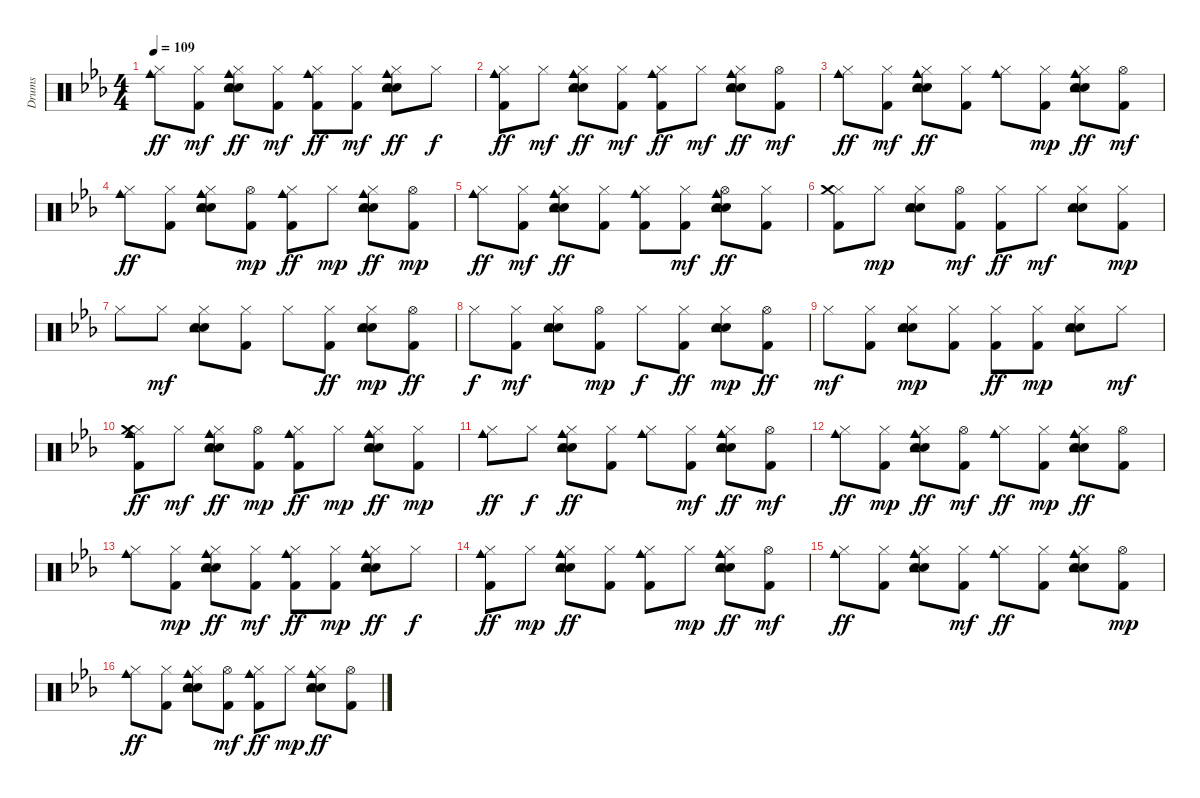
\track ("Drums" "Drums") {instrument percussion}
\staff {score}
\articulation defaults
\ts (4 4)
\tempo 109
\clef neutral
\ks eb
("Hi-Hat (closed)" "Cowbell medium (hit)").8{dy ff} ("Kick (hit) 2" "Hi-Hat (closed)").8{dy mf} ("Hand Clap (hit)" "Electric Snare (hit)" "Hi-Hat (closed)" "Tambourine (hit)" "Cowbell medium (hit)").8{dy ff} ("Kick (hit) 2" "Hi-Hat (closed)").8{dy mf} ("Kick (hit) 2" "Hi-Hat (closed)" "Cowbell medium (hit)").8{dy ff} ("Kick (hit) 2" "Hi-Hat (closed)").8{dy mf} ("Hand Clap (hit)" "Electric Snare (hit)" "Hi-Hat (closed)" "Tambourine (hit)" "Cowbell medium (hit)").8{dy ff} "Hi-Hat (closed)".8{dy f} |
("Kick (hit) 2" "Hi-Hat (closed)" "Cowbell medium (hit)").8{dy ff} "Hi-Hat (closed)".8{dy mf} ("Hand Clap (hit)" "Electric Snare (hit)" "Hi-Hat (closed)" "Tambourine (hit)" "Cowbell medium (hit)").8{dy ff} ("Kick (hit) 2" "Hi-Hat (closed)").8{dy mf} ("Kick (hit) 2" "Hi-Hat (closed)" "Cowbell medium (hit)").8{dy ff} "Hi-Hat (closed)".8{dy mf} ("Hand Clap (hit)" "Electric Snare (hit)" "Hi-Hat (closed)" "Tambourine (hit)" "Cowbell medium (hit)").8{dy ff} ("Kick (hit) 2" "Hi-Hat (open)").8{dy mf} |
("Hi-Hat (closed)" "Cowbell medium (hit)").8{dy ff} ("Kick (hit) 2" "Hi-Hat (closed)").8{dy mf} ("Hand Clap (hit)" "Electric Snare (hit)" "Hi-Hat (closed)" "Tambourine (hit)" "Cowbell medium (hit)").8{dy ff} ("Kick (hit) 2" "Hi-Hat (closed)").8 ("Hi-Hat (closed)" "Cowbell medium (hit)").8 ("Kick (hit) 2" "Hi-Hat (closed)").8{dy mp} ("Hand Clap (hit)" "Electric Snare (hit)" "Hi-Hat (closed)" "Tambourine (hit)" "Cowbell medium (hit)").8{dy ff} ("Kick (hit) 2" "Hi-Hat (open)").8{dy mf} |
("Hi-Hat (closed)" "Cowbell medium (hit)").8{dy ff} ("Kick (hit) 2" "Hi-Hat (closed)").8 ("Hand Clap (hit)" "Electric Snare (hit)" "Hi-Hat (closed)" "Tambourine (hit)" "Cowbell medium (hit)").8 ("Kick (hit) 2" "Hi-Hat (open)").8{dy mp} ("Kick (hit) 2" "Hi-Hat (closed)" "Cowbell medium (hit)").8{dy ff} "Hi-Hat (closed)".8{dy mp} ("Hand Clap (hit)" "Electric Snare (hit)" "Hi-Hat (closed)" "Tambourine (hit)" "Cowbell medium (hit)").8{dy ff} ("Kick (hit) 2" "Hi-Hat (open)").8{dy mp} |
("Hi-Hat (closed)" "Cowbell medium (hit)").8{dy ff} ("Kick (hit) 2" "Hi-Hat (closed)").8{dy mf} ("Hand Clap (hit)" "Electric Snare (hit)" "Hi-Hat (closed)" "Tambourine (hit)" "Cowbell medium (hit)").8{dy ff} ("Kick (hit) 2" "Hi-Hat (closed)").8 ("Kick (hit) 2" "Hi-Hat (closed)" "Cowbell medium (hit)").8 ("Kick (hit) 2" "Hi-Hat (closed)").8{dy mf} ("Hand Clap (hit)" "Electric Snare (hit)" "Hi-Hat (open)" "Tambourine (hit)" "Cowbell medium (hit)").8{dy ff} ("Kick (hit) 2" "Hi-Hat (closed)").8 |
("Kick (hit) 2" "Hi-Hat (closed)" "Crash medium (hit)").8 "Hi-Hat (closed)".8{dy mp} ("Hand Clap (hit)" "Electric Snare (hit)" "Hi-Hat (closed)" "Tambourine (hit)").8 ("Kick (hit) 2" "Hi-Hat (open)").8{dy mf} ("Kick (hit) 2" "Hi-Hat (closed)").8{dy ff} "Hi-Hat (closed)".8{dy mf} ("Hand Clap (hit)" "Electric Snare (hit)" "Hi-Hat (closed)" "Tambourine (hit)").8 ("Kick (hit) 2" "Hi-Hat (closed)").8{dy mp} |
"Hi-Hat (closed)".8 "Hi-Hat (closed)".8{dy mf} ("Hand Clap (hit)" "Electric Snare (hit)" "Hi-Hat (closed)" "Tambourine (hit)").8 ("Kick (hit) 2" "Hi-Hat (closed)").8 "Hi-Hat (closed)".8 ("Kick (hit) 2" "Hi-Hat (closed)").8{dy ff} ("Hand Clap (hit)" "Electric Snare (hit)" "Hi-Hat (closed)" "Tambourine (hit)").8{dy mp} ("Kick (hit) 2" "Hi-Hat (open)").8{dy ff} |
"Hi-Hat (closed)".8{dy f} ("Kick (hit) 2" "Hi-Hat (closed)").8{dy mf} ("Hand Clap (hit)" "Electric Snare (hit)" "Hi-Hat (closed)" "Tambourine (hit)").8 ("Kick (hit) 2" "Hi-Hat (open)").8{dy mp} "Hi-Hat (closed)".8{dy f} ("Kick (hit) 2" "Hi-Hat (closed)").8{dy ff} ("Hand Clap (hit)" "Electric Snare (hit)" "Hi-Hat (closed)" "Tambourine (hit)").8{dy mp} ("Kick (hit) 2" "Hi-Hat (open)").8{dy ff} |
"Hi-Hat (closed)".8{dy mf} ("Kick (hit) 2" "Hi-Hat (closed)").8 ("Hand Clap (hit)" "Electric Snare (hit)" "Hi-Hat (closed)" "Tambourine (hit)").8{dy mp} ("Kick (hit) 2" "Hi-Hat (closed)").8 ("Kick (hit) 2" "Hi-Hat (closed)").8{dy ff} ("Kick (hit) 2" "Hi-Hat (closed)").8{dy mp} ("Hand Clap (hit)" "Electric Snare (hit)" "Hi-Hat (closed)" "Tambourine (hit)").8 "Hi-Hat (closed)".8{dy mf} |
("Kick (hit) 2" "Hi-Hat (closed)" "Cowbell medium (hit)" "Crash medium (hit)").8{dy ff} "Hi-Hat (closed)".8{dy mf} ("Hand Clap (hit)" "Electric Snare (hit)" "Hi-Hat (closed)" "Tambourine (hit)" "Cowbell medium (hit)").8{dy ff} ("Kick (hit) 2" "Hi-Hat (open)").8{dy mp} ("Kick (hit) 2" "Hi-Hat (closed)" "Cowbell medium (hit)").8{dy ff} "Hi-Hat (closed)".8{dy mp} ("Hand Clap (hit)" "Electric Snare (hit)" "Hi-Hat (closed)" "Tambourine (hit)" "Cowbell medium (hit)").8{dy ff} ("Kick (hit) 2" "Hi-Hat (closed)").8{dy mp} |
("Hi-Hat (closed)" "Cowbell medium (hit)").8{dy ff} "Hi-Hat (closed)".8{dy f} ("Hand Clap (hit)" "Electric Snare (hit)" "Hi-Hat (closed)" "Tambourine (hit)" "Cowbell medium (hit)").8{dy ff} ("Kick (hit) 2" "Hi-Hat (closed)").8 ("Hi-Hat (closed)" "Cowbell medium (hit)").8 ("Kick (hit) 2" "Hi-Hat (closed)").8{dy mf} ("Hand Clap (hit)" "Electric Snare (hit)" "Hi-Hat (closed)" "Tambourine (hit)" "Cowbell medium (hit)").8{dy ff} ("Kick (hit) 2" "Hi-Hat (open)").8{dy mf} |
("Hi-Hat (closed)" "Cowbell medium (hit)").8{dy ff} ("Kick (hit) 2" "Hi-Hat (closed)").8{dy mp} ("Hand Clap (hit)" "Electric Snare (hit)" "Hi-Hat (closed)" "Tambourine (hit)" "Cowbell medium (hit)").8{dy ff} ("Kick (hit) 2" "Hi-Hat (open)").8{dy mf} ("Hi-Hat (closed)" "Cowbell medium (hit)").8{dy ff} ("Kick (hit) 2" "Hi-Hat (closed)").8{dy mp} ("Hand Clap (hit)" "Electric Snare (hit)" "Hi-Hat (closed)" "Tambourine (hit)" "Cowbell medium (hit)").8{dy ff} ("Kick (hit) 2" "Hi-Hat (open)").8 |
("Hi-Hat (closed)" "Cowbell medium (hit)").8 ("Kick (hit) 2" "Hi-Hat (closed)").8{dy mp} ("Hand Clap (hit)" "Electric Snare (hit)" "Hi-Hat (closed)" "Tambourine (hit)" "Cowbell medium (hit)").8{dy ff} ("Kick (hit) 2" "Hi-Hat (closed)").8{dy mf} ("Kick (hit) 2" "Hi-Hat (closed)" "Cowbell medium (hit)").8{dy ff} ("Kick (hit) 2" "Hi-Hat (closed)").8{dy mp} ("Hand Clap (hit)" "Electric Snare (hit)" "Hi-Hat (closed)" "Tambourine (hit)" "Cowbell medium (hit)").8{dy ff} "Hi-Hat (closed)".8{dy f} |
("Kick (hit) 2" "Hi-Hat (closed)" "Cowbell medium (hit)").8{dy ff} "Hi-Hat (closed)".8{dy mp} ("Hand Clap (hit)" "Electric Snare (hit)" "Hi-Hat (closed)" "Tambourine (hit)" "Cowbell medium (hit)").8{dy ff} ("Kick (hit) 2" "Hi-Hat (closed)").8 ("Kick (hit) 2" "Hi-Hat (closed)" "Cowbell medium (hit)").8 "Hi-Hat (closed)".8{dy mp} ("Hand Clap (hit)" "Electric Snare (hit)" "Hi-Hat (closed)" "Tambourine (hit)" "Cowbell medium (hit)").8{dy ff} ("Kick (hit) 2" "Hi-Hat (open)").8{dy mf} |
("Hi-Hat (closed)" "Cowbell medium (hit)").8{dy ff} ("Kick (hit) 2" "Hi-Hat (closed)").8 ("Hand Clap (hit)" "Electric Snare (hit)" "Hi-Hat (closed)" "Tambourine (hit)" "Cowbell medium (hit)").8 ("Kick (hit) 2" "Hi-Hat (closed)").8{dy mf} ("Hi-Hat (closed)" "Cowbell medium (hit)").8{dy ff} ("Kick (hit) 2" "Hi-Hat (closed)").8 ("Hand Clap (hit)" "Electric Snare (hit)" "Hi-Hat (closed)" "Tambourine (hit)" "Cowbell medium (hit)").8 ("Kick (hit) 2" "Hi-Hat (open)").8{dy mp} |
("Hi-Hat (closed)" "Cowbell medium (hit)").8{dy ff} ("Kick (hit) 2" "Hi-Hat (closed)").8 ("Hand Clap (hit)" "Electric Snare (hit)" "Hi-Hat (closed)" "Tambourine (hit)" "Cowbell medium (hit)").8 ("Kick (hit) 2" "Hi-Hat (open)").8{dy mf} ("Kick (hit) 2" "Hi-Hat (closed)" "Cowbell medium (hit)").8{dy ff} "Hi-Hat (closed)".8{dy mp} ("Hand Clap (hit)" "Electric Snare (hit)" "Hi-Hat (closed)" "Tambourine (hit)" "Cowbell medium (hit)").8{dy ff} ("Kick (hit) 2" "Hi-Hat (open)").8
